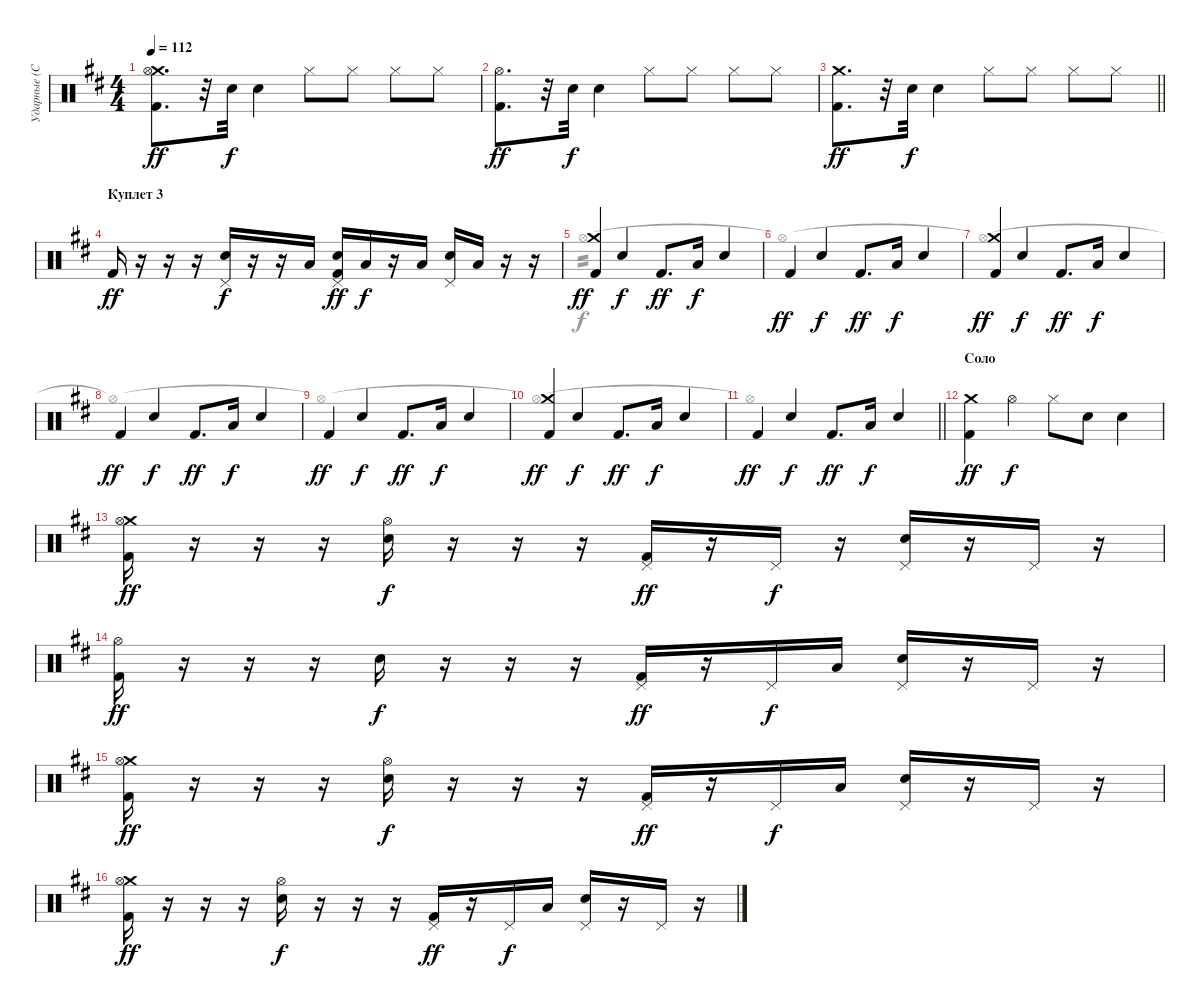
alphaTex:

\track ("Ударные (С.Кавагое)" "Ударные (С") {instrument percussion}
\staff {score}
\articulation defaults
\voice
\ts (4 4)
\tempo 112
\clef neutral
\ks bminor
("Crash medium (hit)" "Hi-Hat (open)" "Kick (hit) 2").8{d dy ff} r.32 "Electric Snare (hit)".32{dy f} "Electric Snare (hit)".4 "Hi-Hat (closed)".8 "Hi-Hat (closed)".8 "Hi-Hat (closed)".8 "Hi-Hat (closed)".8 |
("Hi-Hat (open)" "Kick (hit) 2").8{d dy ff} r.32 "Electric Snare (hit)".32{dy f} "Electric Snare (hit)".4 "Hi-Hat (closed)".8 "Hi-Hat (closed)".8 "Hi-Hat (closed)".8 "Hi-Hat (closed)".8 |
\barLineRight lightlight
("Crash medium (hit)" "Kick (hit) 2").8{d dy ff} r.32 "Electric Snare (hit)".32{dy f} "Electric Snare (hit)".4 "Hi-Hat (closed)".8 "Hi-Hat (closed)".8 "Hi-Hat (closed)".8 "Hi-Hat (closed)".8 |
\section ("" "Куплет 3")
"Kick (hit) 2".16{dy ff} r.16 r.16 r.16 ("Pedal Hi-Hat (hit)" "Electric Snare (hit)").16{dy f} r.16 r.16 "Low Tom (hit)".16 ("Pedal Hi-Hat (hit)" "Electric Snare (hit)" "Kick (hit) 2").16{dy ff} "Low Floor Tom (hit)".16{dy f} r.16 "Low Tom (hit)".16 ("Pedal Hi-Hat (hit)" "Electric Snare (hit)").16 "Low Floor Tom (hit)".16 r.16 r.16 |
("Crash medium (hit)" "Kick (hit) 2").4{dy ff} "Electric Snare (hit)".4{dy f} "Kick (hit) 2".8{d dy ff} "Low Tom (hit)".16{dy f} "Electric Snare (hit)".4 |
"Kick (hit) 2".4{dy ff} "Electric Snare (hit)".4{dy f} "Kick (hit) 2".8{d dy ff} "Low Tom (hit)".16{dy f} "Electric Snare (hit)".4 |
("Crash medium (hit)" "Kick (hit) 2").4{dy ff} "Electric Snare (hit)".4{dy f} "Kick (hit) 2".8{d dy ff} "Low Tom (hit)".16{dy f} "Electric Snare (hit)".4 |
"Kick (hit) 2".4{dy ff} "Electric Snare (hit)".4{dy f} "Kick (hit) 2".8{d dy ff} "Low Tom (hit)".16{dy f} "Electric Snare (hit)".4 |
"Kick (hit) 2".4{dy ff} "Electric Snare (hit)".4{dy f} "Kick (hit) 2".8{d dy ff} "Low Tom (hit)".16{dy f} "Electric Snare (hit)".4 |
("Crash medium (hit)" "Kick (hit) 2").4{dy ff} "Electric Snare (hit)".4{dy f} "Kick (hit) 2".8{d dy ff} "Low Tom (hit)".16{dy f} "Electric Snare (hit)".4 |
\barLineRight lightlight "Kick (hit) 2".4{dy ff} "Electric Snare (hit)".4{dy f} "Kick (hit) 2".8{d dy ff} "Low Tom (hit)".16{dy f} "Electric Snare (hit)".4
|
\section ("" "Соло")
("Crash medium (hit)" "Kick (hit) 2").4{dy ff} "Hi-Hat (open)".4{dy f} "Hi-Hat (closed)".8 "Electric Snare (hit)".8 "Electric Snare (hit)".4 |
("Crash medium (hit)" "Hi-Hat (open)" "Kick (hit) 2").16{dy ff} r.16 r.16 r.16 ("Hi-Hat (open)" "Electric Snare (hit)").16{dy f} r.16 r.16 r.16 ("Pedal Hi-Hat (hit)" "Kick (hit) 2").16{dy ff} r.16 "Pedal Hi-Hat (hit)".16{dy f} r.16 ("Pedal Hi-Hat (hit)" "Electric Snare (hit)").16 r.16 "Pedal Hi-Hat (hit)".16 r.16 |
("Hi-Hat (open)" "Kick (hit) 2").16{dy ff} r.16 r.16 r.16 "Electric Snare (hit)".16{dy f} r.16 r.16 r.16 ("Pedal Hi-Hat (hit)" "Kick (hit) 2").16{dy ff} r.16 "Pedal Hi-Hat (hit)".16{dy f} "Low Tom (hit)".16 ("Pedal Hi-Hat (hit)" "Electric Snare (hit)").16 r.16 "Pedal Hi-Hat (hit)".16 r.16 |
("Crash medium (hit)" "Hi-Hat (open)" "Kick (hit) 2").16{dy ff} r.16 r.16 r.16 ("Hi-Hat (open)" "Electric Snare (hit)").16{dy f} r.16 r.16 r.16 ("Pedal Hi-Hat (hit)" "Kick (hit) 2").16{dy ff} r.16 "Pedal Hi-Hat (hit)".16{dy f} "Low Tom (hit)".16 ("Pedal Hi-Hat (hit)" "Electric Snare (hit)").16 r.16 "Pedal Hi-Hat (hit)".16 r.16 |
("Crash medium (hit)" "Hi-Hat (open)" "Kick (hit) 2").16{dy ff} r.16 r.16 r.16 ("Hi-Hat (open)" "Electric Snare (hit)").16{dy f} r.16 r.16 r.16 ("Pedal Hi-Hat (hit)" "Kick (hit) 2").16{dy ff} r.16 "Pedal Hi-Hat (hit)".16{dy f} "Low Tom (hit)".16 ("Pedal Hi-Hat (hit)" "Electric Snare (hit)").16 r.16 "Pedal Hi-Hat (hit)".16 r.16
\voice
\clef neutral
\ottava regular
\simile none
\ks bminor
|
|
\barLineRight lightlight
|
|
"Hi-Hat (open)".1{tp 2} |
"Hi-Hat (open)"{t}.1{dy f} |
"Hi-Hat (open)"{t}.1 |
"Hi-Hat (open)"{t}.1 |
"Hi-Hat (open)"{t}.1 |
"Hi-Hat (open)"{t}.1 |
\barLineRight lightlight "Hi-Hat (open)"{t}.1
|
|
|
|
|
